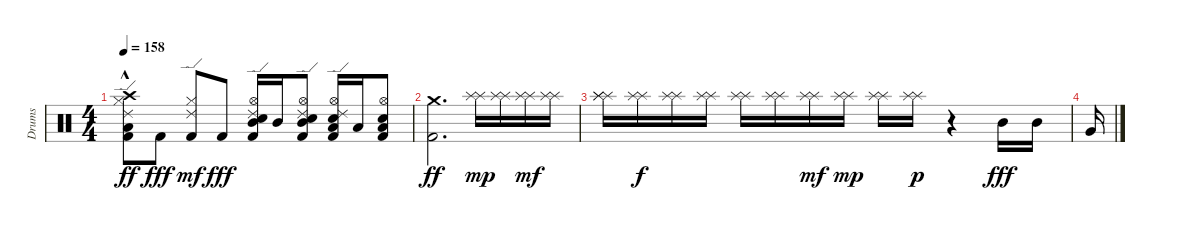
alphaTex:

\track ("Drums" "Drums") {instrument percussion}
\staff {score}
\articulation defaults
\ts (4 4)
\tempo 158
\clef neutral
\ks c
("Kick (hit) 2" "Hi-Hat (closed)" "Ride (edge) 2" "Low Floor Tom (hit)" "Crash high (hit)"{hac}).8{dy ff} "Kick (hit) 2".8{dy fff} ("Kick (hit) 2" "Hi-Hat (closed)" "Ride (edge) 2").8{dy mf} "Kick (hit) 2".8{dy fff} ("Kick (hit) 2" "Snare (hit) 2" "Hi-Hat (open)" "Ride (edge) 2" "Mid Tom (hit)").16 "Mid Tom (hit)".16 ("Kick (hit) 2" "Snare (hit) 2" "Hi-Hat (open)" "Ride (edge) 2" "Mid Tom (hit)").8 ("Kick (hit) 2" "Snare (hit) 2" "Hi-Hat (open)" "Ride (edge) 2" "Low Tom (hit)").16 "Low Tom (hit)".16 ("Kick (hit) 2" "Snare (hit) 2" "Hi-Hat (open)" "Low Tom (hit)").8 |
("Kick (hit) 2" "Crash medium (hit)").2{d dy ff} ("Splash (hit)" "Splash (hit)").16{dy mp} ("Splash (hit)" "Splash (hit)").16 ("Splash (hit)" "Splash (hit)").16{dy mf} ("Splash (hit)" "Splash (hit)").16 |
("Splash (hit)" "Splash (hit)" "Splash (hit)").16 ("Splash (hit)" "Splash (hit)").16{dy f} ("Splash (hit)" "Splash (hit)").16 ("Splash (hit)" "Splash (hit)").16 ("Splash (hit)" "Splash (hit)").16 ("Splash (hit)" "Splash (hit)").16 ("Splash (hit)" "Splash (hit)").16{dy mf} ("Splash (hit)" "Splash (hit)").16{dy mp} ("Splash (hit)" "Splash (hit)").16 ("Splash (hit)" "Splash (hit)").16{dy p} r.4 "Mid Tom (hit)".16{dy fff} "Mid Tom (hit)".16 |
"Very Low Tom (hit)".16
